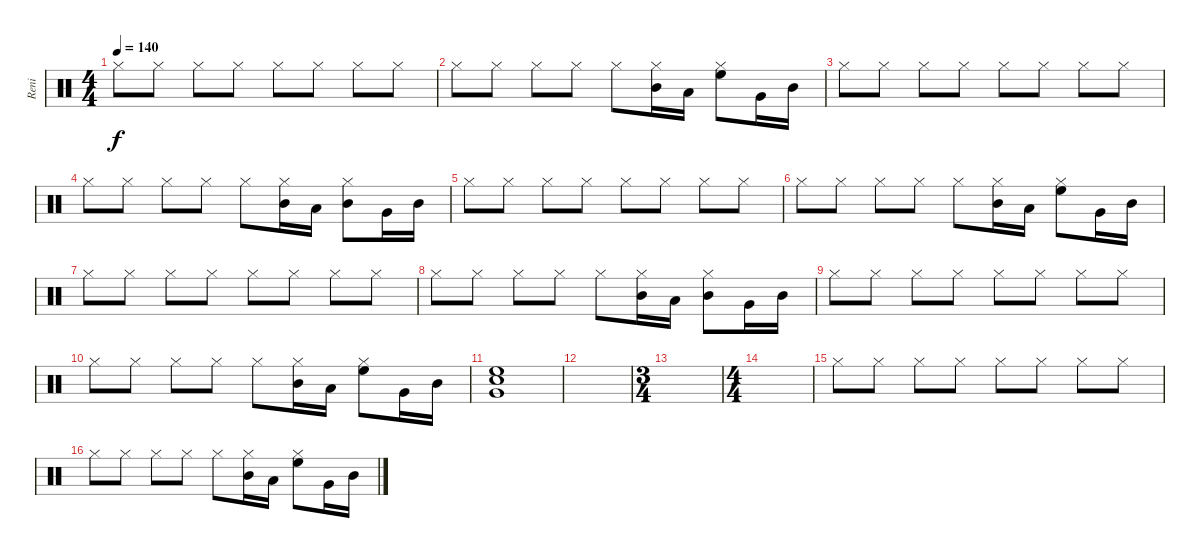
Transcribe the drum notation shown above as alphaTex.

\track ("Reni" "Reni") {instrument percussion}
\staff {score}
\articulation defaults
\ts (4 4)
\tempo 140
\clef neutral
\ks c "Hi-Hat (closed)".8{dy f} "Hi-Hat (closed)".8 "Hi-Hat (closed)".8 "Hi-Hat (closed)".8 "Hi-Hat (closed)".8 "Hi-Hat (closed)".8 "Hi-Hat (closed)".8 "Hi-Hat (closed)".8
|
"Hi-Hat (closed)".8 "Hi-Hat (closed)".8 "Hi-Hat (closed)".8 "Hi-Hat (closed)".8 "Hi-Hat (closed)".8 ("Hi-Hat (closed)" "Mid Tom (hit)").16 "Low Tom (hit)".16 ("Hi-Hat (closed)" "High Floor Tom (hit)").8 "Very Low Tom (hit)".16 "Mid Tom (hit)".16 |
"Hi-Hat (closed)".8 "Hi-Hat (closed)".8 "Hi-Hat (closed)".8 "Hi-Hat (closed)".8 "Hi-Hat (closed)".8 "Hi-Hat (closed)".8 "Hi-Hat (closed)".8 "Hi-Hat (closed)".8 |
"Hi-Hat (closed)".8 "Hi-Hat (closed)".8 "Hi-Hat (closed)".8 "Hi-Hat (closed)".8 "Hi-Hat (closed)".8 ("Hi-Hat (closed)" "Mid Tom (hit)").16 "Low Tom (hit)".16 ("Hi-Hat (closed)" "Mid Tom (hit)").8 "Very Low Tom (hit)".16 "Mid Tom (hit)".16 |
"Hi-Hat (closed)".8 "Hi-Hat (closed)".8 "Hi-Hat (closed)".8 "Hi-Hat (closed)".8 "Hi-Hat (closed)".8 "Hi-Hat (closed)".8 "Hi-Hat (closed)".8 "Hi-Hat (closed)".8 |
"Hi-Hat (closed)".8 "Hi-Hat (closed)".8 "Hi-Hat (closed)".8 "Hi-Hat (closed)".8 "Hi-Hat (closed)".8 ("Hi-Hat (closed)" "Mid Tom (hit)").16 "Low Tom (hit)".16 ("Hi-Hat (closed)" "High Floor Tom (hit)").8 "Very Low Tom (hit)".16 "Mid Tom (hit)".16 |
"Hi-Hat (closed)".8 "Hi-Hat (closed)".8 "Hi-Hat (closed)".8 "Hi-Hat (closed)".8 "Hi-Hat (closed)".8 "Hi-Hat (closed)".8 "Hi-Hat (closed)".8 "Hi-Hat (closed)".8 |
"Hi-Hat (closed)".8 "Hi-Hat (closed)".8 "Hi-Hat (closed)".8 "Hi-Hat (closed)".8 "Hi-Hat (closed)".8 ("Hi-Hat (closed)" "Mid Tom (hit)").16 "Low Tom (hit)".16 ("Hi-Hat (closed)" "Mid Tom (hit)").8 "Very Low Tom (hit)".16 "Mid Tom (hit)".16 |
"Hi-Hat (closed)".8 "Hi-Hat (closed)".8 "Hi-Hat (closed)".8 "Hi-Hat (closed)".8 "Hi-Hat (closed)".8 "Hi-Hat (closed)".8 "Hi-Hat (closed)".8 "Hi-Hat (closed)".8 |
"Hi-Hat (closed)".8 "Hi-Hat (closed)".8 "Hi-Hat (closed)".8 "Hi-Hat (closed)".8 "Hi-Hat (closed)".8 ("Hi-Hat (closed)" "Mid Tom (hit)").16 "Low Tom (hit)".16 ("Hi-Hat (closed)" "High Floor Tom (hit)").8 "Very Low Tom (hit)".16 "Mid Tom (hit)".16 |
("High Floor Tom (hit)" "Very Low Tom (hit)" "Electric Snare (hit)").1 |
|
\ts (3 4)
|
\ts (4 4)
|
"Hi-Hat (closed)".8 "Hi-Hat (closed)".8 "Hi-Hat (closed)".8 "Hi-Hat (closed)".8 "Hi-Hat (closed)".8 "Hi-Hat (closed)".8 "Hi-Hat (closed)".8 "Hi-Hat (closed)".8 |
"Hi-Hat (closed)".8 "Hi-Hat (closed)".8 "Hi-Hat (closed)".8 "Hi-Hat (closed)".8 "Hi-Hat (closed)".8 ("Hi-Hat (closed)" "Mid Tom (hit)").16 "Low Tom (hit)".16 ("Hi-Hat (closed)" "High Floor Tom (hit)").8 "Very Low Tom (hit)".16 "Mid Tom (hit)".16
